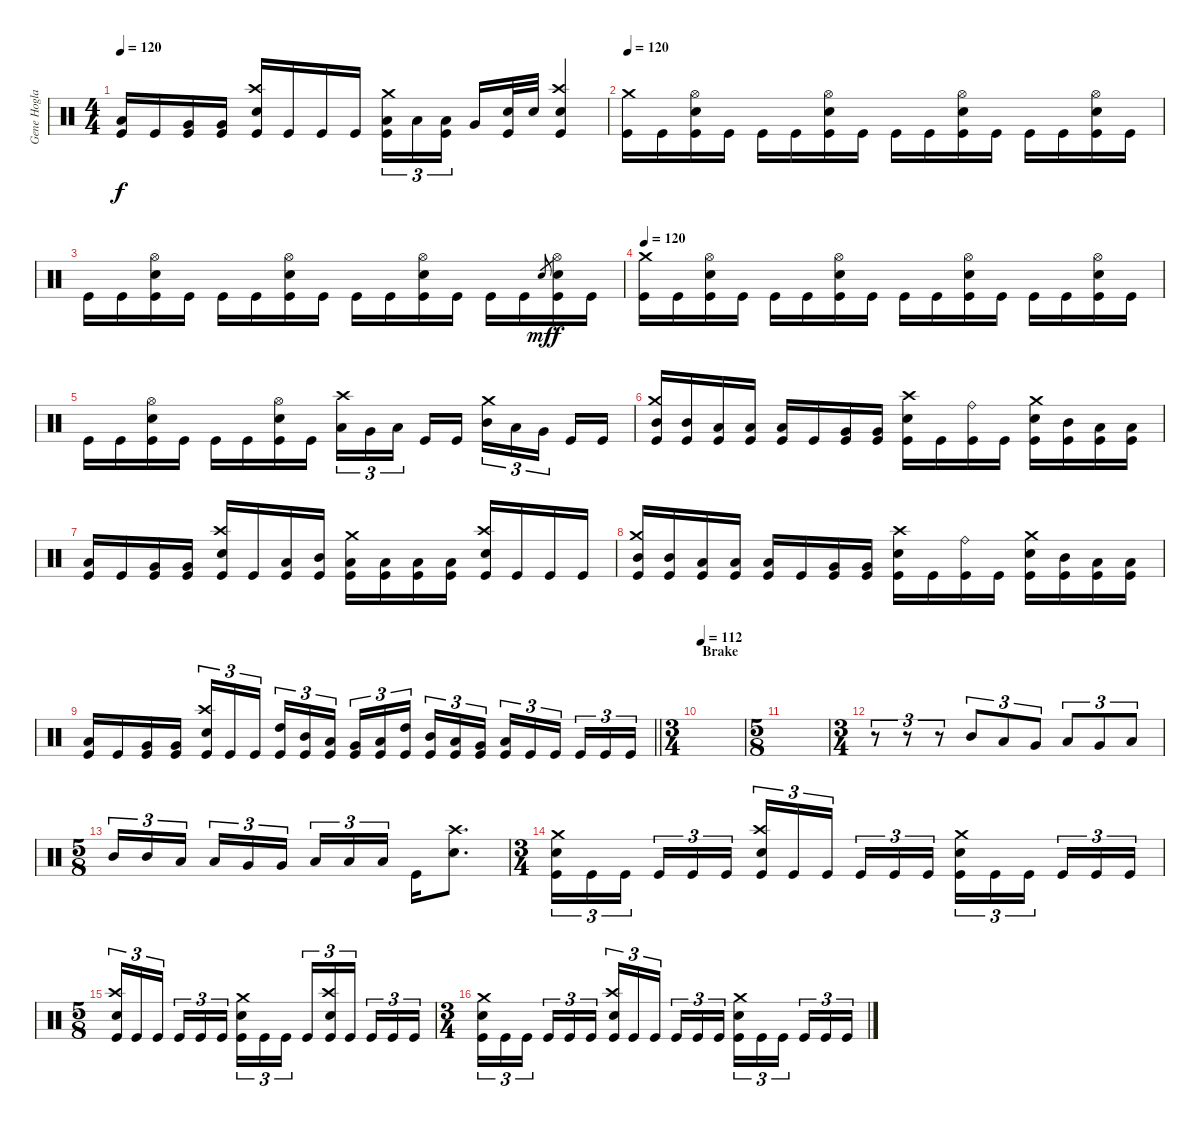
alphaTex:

\track ("Gene Hoglan" "Gene Hogla") {instrument percussion}
\staff {score}
\articulation defaults
\ts (4 4)
\tempo 120
\clef neutral
\ks c
("Low Tom (hit)" "Kick (hit)").16{dy f} "Kick (hit)".16 ("Very Low Tom (hit)" "Kick (hit)").16 ("Very Low Tom (hit)" "Kick (hit)").16 ("Crash high (hit)" "Electric Snare (hit)" "Kick (hit)").16 "Kick (hit)".16 "Kick (hit)".16 "Kick (hit)".16 ("Crash medium (hit)" "Low Tom (hit)" "Kick (hit)").16{tu (3 2)} "Low Tom (hit)".16{tu (3 2)} ("Low Tom (hit)" "Kick (hit)").16{tu (3 2) beam splitsecondary} "Very Low Tom (hit)".16 ("Electric Snare (hit)" "Kick (hit)").32 "Electric Snare (hit)".32 ("Crash high (hit)" "Electric Snare (hit)" "Kick (hit)").4 |
\tempo 120
("Crash medium (hit)" "Kick (hit)").16 "Kick (hit)".16 ("Hi-Hat (open)" "Electric Snare (hit)" "Kick (hit)").16 "Kick (hit)".16 "Kick (hit)".16 "Kick (hit)".16 ("Hi-Hat (open)" "Electric Snare (hit)" "Kick (hit)").16 "Kick (hit)".16 "Kick (hit)".16 "Kick (hit)".16 ("Hi-Hat (open)" "Electric Snare (hit)" "Kick (hit)").16 "Kick (hit)".16 "Kick (hit)".16 "Kick (hit)".16 ("Hi-Hat (open)" "Electric Snare (hit)" "Kick (hit)").16 "Kick (hit)".16 |
"Kick (hit)".16 "Kick (hit)".16 ("Hi-Hat (open)" "Electric Snare (hit)" "Kick (hit)").16 "Kick (hit)".16 "Kick (hit)".16 "Kick (hit)".16 ("Hi-Hat (open)" "Electric Snare (hit)" "Kick (hit)").16 "Kick (hit)".16 "Kick (hit)".16 "Kick (hit)".16 ("Hi-Hat (open)" "Electric Snare (hit)" "Kick (hit)").16 "Kick (hit)".16 "Kick (hit)".16 "Kick (hit)".16 "Electric Snare (hit)".8{gr dy mf} ("Hi-Hat (open)" "Electric Snare (hit)" "Kick (hit)").16{dy f} "Kick (hit)".16 |
\tempo 120
("Crash medium (hit)" "Kick (hit)").16 "Kick (hit)".16 ("Hi-Hat (open)" "Electric Snare (hit)" "Kick (hit)").16 "Kick (hit)".16 "Kick (hit)".16 "Kick (hit)".16 ("Hi-Hat (open)" "Electric Snare (hit)" "Kick (hit)").16 "Kick (hit)".16 "Kick (hit)".16 "Kick (hit)".16 ("Hi-Hat (open)" "Electric Snare (hit)" "Kick (hit)").16 "Kick (hit)".16 "Kick (hit)".16 "Kick (hit)".16 ("Hi-Hat (open)" "Electric Snare (hit)" "Kick (hit)").16 "Kick (hit)".16 |
"Kick (hit)".16 "Kick (hit)".16 ("Hi-Hat (open)" "Electric Snare (hit)" "Kick (hit)").16 "Kick (hit)".16 "Kick (hit)".16 "Kick (hit)".16 ("Hi-Hat (open)" "Electric Snare (hit)" "Kick (hit)").16 "Kick (hit)".16 ("Crash high (hit)" "Low Tom (hit)").16{tu (3 2)} "Very Low Tom (hit)".16{tu (3 2)} "Low Floor Tom (hit)".16{tu (3 2) beam splitsecondary} "Kick (hit)".16 "Kick (hit)".16 ("Crash medium (hit)" "Mid Tom (hit)").16{tu (3 2)} "Low Tom (hit)".16{tu (3 2)} "Very Low Tom (hit)".16{tu (3 2) beam splitsecondary} "Kick (hit)".16 "Kick (hit)".16 |
("Crash medium (hit)" "Mid Tom (hit)" "Kick (hit)").16 ("Mid Tom (hit)" "Kick (hit)").16 ("Low Tom (hit)" "Kick (hit)").16 ("Low Tom (hit)" "Kick (hit)").16 ("Low Tom (hit)" "Kick (hit)").16 "Kick (hit)".16 ("Very Low Tom (hit)" "Kick (hit)").16 ("Very Low Tom (hit)" "Kick (hit)").16 ("Crash high (hit)" "Electric Snare (hit)" "Kick (hit)").16 "Kick (hit)".16 ("Ride (bell)" "Kick (hit)").16 "Kick (hit)".16 ("Crash medium (hit)" "Electric Snare (hit)" "Kick (hit)").16 ("Mid Tom (hit)" "Kick (hit)").16 ("Low Tom (hit)" "Kick (hit)").16 ("Low Tom (hit)" "Kick (hit)").16 |
("Low Tom (hit)" "Kick (hit)").16 "Kick (hit)".16 ("Very Low Tom (hit)" "Kick (hit)").16 ("Very Low Tom (hit)" "Kick (hit)").16 ("Crash high (hit)" "Electric Snare (hit)" "Kick (hit)").16 "Kick (hit)".16 ("Low Tom (hit)" "Kick (hit)").16 ("Mid Tom (hit)" "Kick (hit)").16 ("Crash medium (hit)" "Low Tom (hit)" "Kick (hit)").16 ("Low Tom (hit)" "Kick (hit)").16 ("Low Tom (hit)" "Kick (hit)").16 ("Low Tom (hit)" "Kick (hit)").16 ("Crash high (hit)" "Electric Snare (hit)" "Kick (hit)").16 "Kick (hit)".16 "Kick (hit)".16 "Kick (hit)".16 |
("Crash medium (hit)" "Mid Tom (hit)" "Kick (hit)").16 ("Mid Tom (hit)" "Kick (hit)").16 ("Low Tom (hit)" "Kick (hit)").16 ("Low Tom (hit)" "Kick (hit)").16 ("Low Tom (hit)" "Kick (hit)").16 "Kick (hit)".16 ("Very Low Tom (hit)" "Kick (hit)").16 ("Very Low Tom (hit)" "Kick (hit)").16 ("Crash high (hit)" "Electric Snare (hit)" "Kick (hit)").16 "Kick (hit)".16 ("Ride (bell)" "Kick (hit)").16 "Kick (hit)".16 ("Crash medium (hit)" "Electric Snare (hit)" "Kick (hit)").16 ("Mid Tom (hit)" "Kick (hit)").16 ("Low Tom (hit)" "Kick (hit)").16 ("Low Tom (hit)" "Kick (hit)").16 |
\barLineRight lightlight
("Low Tom (hit)" "Kick (hit)").16 "Kick (hit)".16 ("Very Low Tom (hit)" "Kick (hit)").16 ("Very Low Tom (hit)" "Kick (hit)").16 ("Crash high (hit)" "Electric Snare (hit)" "Kick (hit)").16{tu (3 2)} "Kick (hit)".16{tu (3 2)} "Kick (hit)".16{tu (3 2) beam splitsecondary} ("High Tom (hit)" "Kick (hit)").16{tu (3 2)} ("Mid Tom (hit)" "Kick (hit)").16{tu (3 2)} ("Low Tom (hit)" "Kick (hit)").16{tu (3 2)} ("Very Low Tom (hit)" "Kick (hit)").16{tu (3 2)} ("Low Floor Tom (hit)" "Kick (hit)").16{tu (3 2)} ("High Tom (hit)" "Kick (hit)").16{tu (3 2) beam splitsecondary} ("Mid Tom (hit)" "Kick (hit)").16{tu (3 2)} ("Low Tom (hit)" "Kick (hit)").16{tu (3 2)} ("Very Low Tom (hit)" "Kick (hit)").16{tu (3 2)} ("Low Floor Tom (hit)" "Kick (hit)").16{tu (3 2)} "Kick (hit)".16{tu (3 2)} "Kick (hit)".16{tu (3 2) beam splitsecondary} "Kick (hit)".16{tu (3 2)} "Kick (hit)".16{tu (3 2)} "Kick (hit)".16{tu (3 2)} |
\ts (3 4)
\section ("" "Brake")
\tempo 112
|
\ts (5 8)
|
\ts (3 4)
r.8{tu (3 2) volume 16} r.8{tu (3 2)} r.8{tu (3 2)} "Mid Tom (hit)".8{tu (3 2)} "Low Tom (hit)".8{tu (3 2)} "Very Low Tom (hit)".8{tu (3 2)} "Low Floor Tom (hit)".8{tu (3 2)} "Very Low Tom (hit)".8{tu (3 2)} "Low Tom (hit)".8{tu (3 2)} |
\ts (5 8)
"Mid Tom (hit)".16{tu (3 2)} "Mid Tom (hit)".16{tu (3 2)} "Low Tom (hit)".16{tu (3 2)} "Low Tom (hit)".16{tu (3 2)} "Very Low Tom (hit)".16{tu (3 2)} "Very Low Tom (hit)".16{tu (3 2)} "Low Floor Tom (hit)".16{tu (3 2)} "Low Floor Tom (hit)".16{tu (3 2)} "Low Floor Tom (hit)".16{tu (3 2)} "Kick (hit)".16 ("Crash high (hit)" "Electric Snare (hit)").8{d} |
\ts (3 4)
("Crash medium (hit)" "Electric Snare (hit)" "Kick (hit)").16{tu (3 2)} "Kick (hit)".16{tu (3 2)} "Kick (hit)".16{tu (3 2) beam splitsecondary} "Kick (hit)".16{tu (3 2)} "Kick (hit)".16{tu (3 2)} "Kick (hit)".16{tu (3 2)} ("Crash high (hit)" "Electric Snare (hit)" "Kick (hit)").16{tu (3 2)} "Kick (hit)".16{tu (3 2)} "Kick (hit)".16{tu (3 2) beam splitsecondary} "Kick (hit)".16{tu (3 2)} "Kick (hit)".16{tu (3 2)} "Kick (hit)".16{tu (3 2)} ("Crash medium (hit)" "Electric Snare (hit)" "Kick (hit)").16{tu (3 2)} "Kick (hit)".16{tu (3 2)} "Kick (hit)".16{tu (3 2) beam splitsecondary} "Kick (hit)".16{tu (3 2)} "Kick (hit)".16{tu (3 2)} "Kick (hit)".16{tu (3 2)} |
\ts (5 8)
("Crash high (hit)" "Electric Snare (hit)" "Kick (hit)").16{tu (3 2)} "Kick (hit)".16{tu (3 2)} "Kick (hit)".16{tu (3 2)} "Kick (hit)".16{tu (3 2)} "Kick (hit)".16{tu (3 2)} "Kick (hit)".16{tu (3 2)} ("Crash medium (hit)" "Electric Snare (hit)" "Kick (hit)").16{tu (3 2)} "Kick (hit)".16{tu (3 2)} "Kick (hit)".16{tu (3 2)} "Kick (hit)".16{tu (3 2)} ("Crash high (hit)" "Electric Snare (hit)" "Kick (hit)").16{tu (3 2)} "Kick (hit)".16{tu (3 2)} "Kick (hit)".16{tu (3 2)} "Kick (hit)".16{tu (3 2)} "Kick (hit)".16{tu (3 2)} |
\ts (3 4)
("Crash medium (hit)" "Electric Snare (hit)" "Kick (hit)").16{tu (3 2)} "Kick (hit)".16{tu (3 2)} "Kick (hit)".16{tu (3 2) beam splitsecondary} "Kick (hit)".16{tu (3 2)} "Kick (hit)".16{tu (3 2)} "Kick (hit)".16{tu (3 2)} ("Crash high (hit)" "Electric Snare (hit)" "Kick (hit)").16{tu (3 2)} "Kick (hit)".16{tu (3 2)} "Kick (hit)".16{tu (3 2) beam splitsecondary} "Kick (hit)".16{tu (3 2)} "Kick (hit)".16{tu (3 2)} "Kick (hit)".16{tu (3 2)} ("Crash medium (hit)" "Electric Snare (hit)" "Kick (hit)").16{tu (3 2)} "Kick (hit)".16{tu (3 2)} "Kick (hit)".16{tu (3 2) beam splitsecondary} "Kick (hit)".16{tu (3 2)} "Kick (hit)".16{tu (3 2)} "Kick (hit)".16{tu (3 2)}
